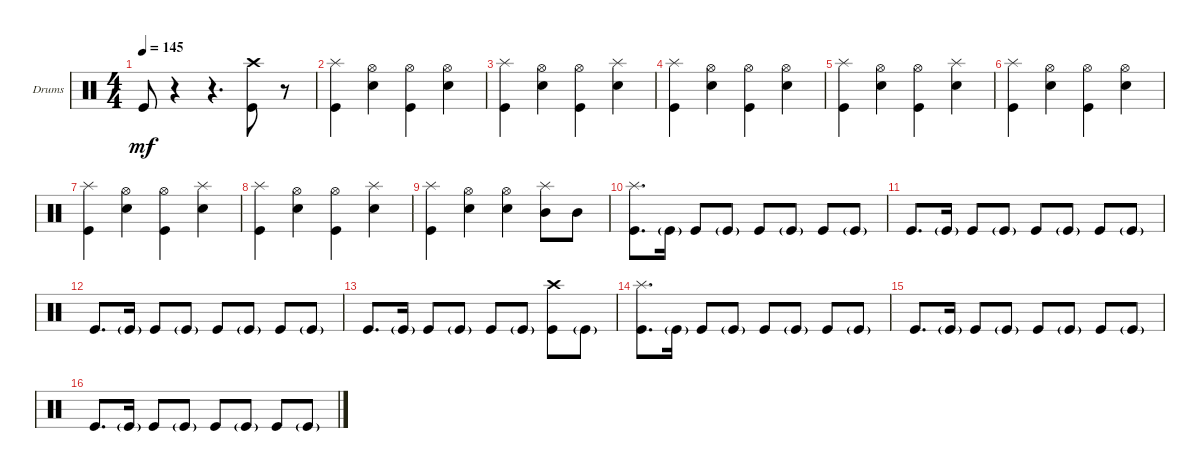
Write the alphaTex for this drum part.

\bracketExtendMode groupsimilarinstruments
\firstSystemTrackNameOrientation horizontal
\otherSystemsTrackNameOrientation horizontal
\track ("Drums" "Drums") {instrument percussion}
\staff {score}
\articulation defaults
\ts (4 4)
\tempo 145
\clef neutral
\scale
0.333333
\ks c "Kick (hit)".8{dy mf}
r.4 r.4{d} ("Kick (hit)" "Crash high (hit)").8 r.8 |
\scale
0.333333 ("Kick (hit)" "Splash (hit)").4 ("Snare (hit) 2" "Hi-Hat (open)").4 ("Kick (hit)" "Hi-Hat (open)").4 ("Snare (hit) 2" "Hi-Hat (open)").4 |
("Kick (hit)" "Splash (hit)").4 ("Snare (hit) 2" "Hi-Hat (open)").4 ("Kick (hit)" "Hi-Hat (open)").4 ("Snare (hit) 2" "Splash (hit)").4 |
\scale
0.333333 ("Kick (hit)" "Splash (hit)").4 ("Snare (hit) 2" "Hi-Hat (open)").4 ("Kick (hit)" "Hi-Hat (open)").4 ("Snare (hit) 2" "Hi-Hat (open)").4 |
\scale
0.333333 ("Kick (hit)" "Splash (hit)").4 ("Snare (hit) 2" "Hi-Hat (open)").4 ("Kick (hit)" "Hi-Hat (open)").4 ("Snare (hit) 2" "Splash (hit)").4 |
\scale
0.333333 ("Kick (hit)" "Splash (hit)").4 ("Snare (hit) 2" "Hi-Hat (open)").4 ("Kick (hit)" "Hi-Hat (open)").4 ("Snare (hit) 2" "Hi-Hat (open)").4 |
\scale
0.333333 ("Kick (hit)" "Splash (hit)").4 ("Snare (hit) 2" "Hi-Hat (open)").4 ("Kick (hit)" "Hi-Hat (open)").4 ("Snare (hit) 2" "Splash (hit)").4 |
\scale
0.333333 ("Kick (hit)" "Splash (hit)").4 ("Snare (hit) 2" "Hi-Hat (open)").4 ("Kick (hit)" "Hi-Hat (open)").4 ("Snare (hit) 2" "Splash (hit)").4 |
\scale
0.333333 ("Kick (hit)" "Splash (hit)").4 ("Snare (hit) 2" "Hi-Hat (open)").4 ("Hi-Hat (open)" "Snare (hit) 2").4 ("Splash (hit)" "Mid Tom (hit)").8 "Mid Tom (hit)".8 |
\scale
0.333333 ("Kick (hit)" "Splash (hit)").8{d} "Kick (hit)"{g}.16 "Kick (hit)".8 "Kick (hit)"{g}.8 "Kick (hit)".8 "Kick (hit)"{g}.8 "Kick (hit)".8 "Kick (hit)"{g}.8 |
\scale
0.333333 "Kick (hit)".8{d} "Kick (hit)"{g}.16 "Kick (hit)".8 "Kick (hit)"{g}.8 "Kick (hit)".8 "Kick (hit)"{g}.8 "Kick (hit)".8 "Kick (hit)"{g}.8 |
\scale
0.333333 "Kick (hit)".8{d} "Kick (hit)"{g}.16 "Kick (hit)".8 "Kick (hit)"{g}.8 "Kick (hit)".8 "Kick (hit)"{g}.8 "Kick (hit)".8 "Kick (hit)"{g}.8 |
\scale
0.333333 "Kick (hit)".8{d} "Kick (hit)"{g}.16 "Kick (hit)".8 "Kick (hit)"{g}.8 "Kick (hit)".8 "Kick (hit)"{g}.8 ("Kick (hit)" "Crash high (hit)").8 "Kick (hit)"{g}.8 |
("Kick (hit)" "Splash (hit)").8{d} "Kick (hit)"{g}.16 "Kick (hit)".8 "Kick (hit)"{g}.8 "Kick (hit)".8 "Kick (hit)"{g}.8 "Kick (hit)".8 "Kick (hit)"{g}.8 |
"Kick (hit)".8{d} "Kick (hit)"{g}.16 "Kick (hit)".8 "Kick (hit)"{g}.8 "Kick (hit)".8 "Kick (hit)"{g}.8 "Kick (hit)".8 "Kick (hit)"{g}.8 |
"Kick (hit)".8{d} "Kick (hit)"{g}.16 "Kick (hit)".8 "Kick (hit)"{g}.8 "Kick (hit)".8 "Kick (hit)"{g}.8 "Kick (hit)".8 "Kick (hit)"{g}.8
